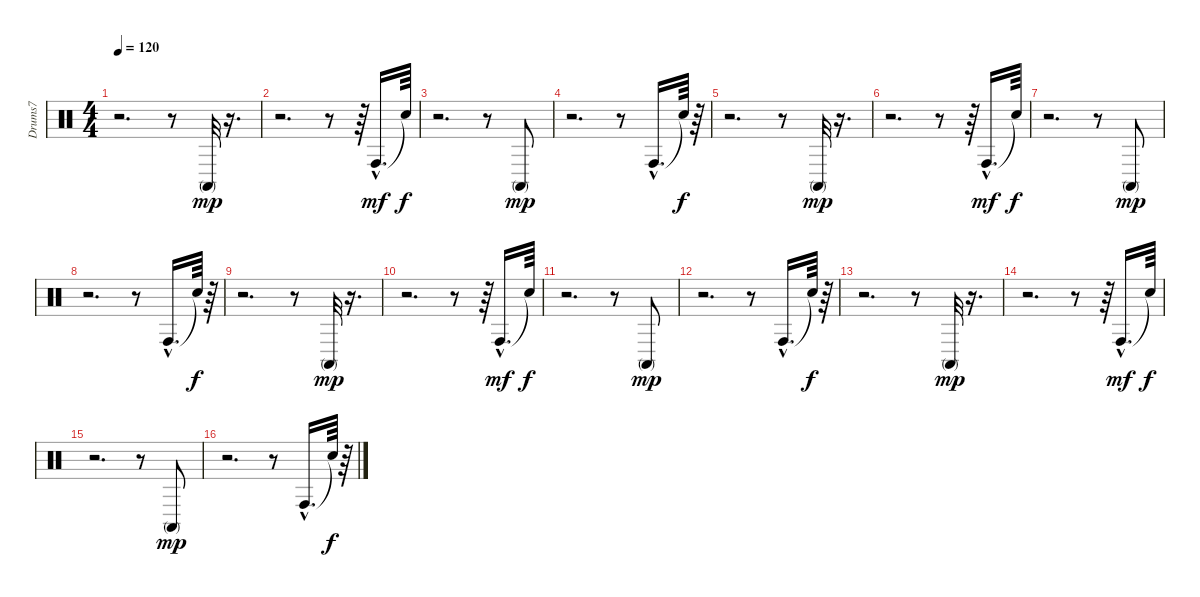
\track ("Drums7" "Drums7") {instrument percussion}
\staff {score}
\articulation defaults
\ts (4 4)
\tempo 120
\clef neutral
\ks c
r.2{d dy f} r.8 "Conga high (mute)".32{dy mp} r.16{d} |
r.2{d} r.8 r.64 "Conga high (hit)"{hac}.16{d dy mf} "Snare (hit)"{t}.64{dy f} |
r.2{d} r.8 "Conga high (mute)".8{dy mp} |
r.2{d} r.8 "Conga high (hit)"{hac}.16{d} "Snare (hit)"{t}.64{dy f} r.64 |
r.2{d} r.8 "Conga high (mute)".32{dy mp} r.16{d} |
r.2{d} r.8 r.64 "Conga high (hit)"{hac}.16{d dy mf} "Snare (hit)"{t}.64{dy f} |
r.2{d} r.8 "Conga high (mute)".8{dy mp} |
r.2{d} r.8 "Conga high (hit)"{hac}.16{d} "Snare (hit)"{t}.64{dy f} r.64 |
r.2{d} r.8 "Conga high (mute)".32{dy mp} r.16{d} |
r.2{d} r.8 r.64 "Conga high (hit)"{hac}.16{d dy mf} "Snare (hit)"{t}.64{dy f} |
r.2{d} r.8 "Conga high (mute)".8{dy mp} |
r.2{d} r.8 "Conga high (hit)"{hac}.16{d} "Snare (hit)"{t}.64{dy f} r.64 |
r.2{d} r.8 "Conga high (mute)".32{dy mp} r.16{d} |
r.2{d} r.8 r.64 "Conga high (hit)"{hac}.16{d dy mf} "Snare (hit)"{t}.64{dy f} |
r.2{d} r.8 "Conga high (mute)".8{dy mp} |
r.2{d} r.8 "Conga high (hit)"{hac}.16{d} "Snare (hit)"{t}.64{dy f} r.64
